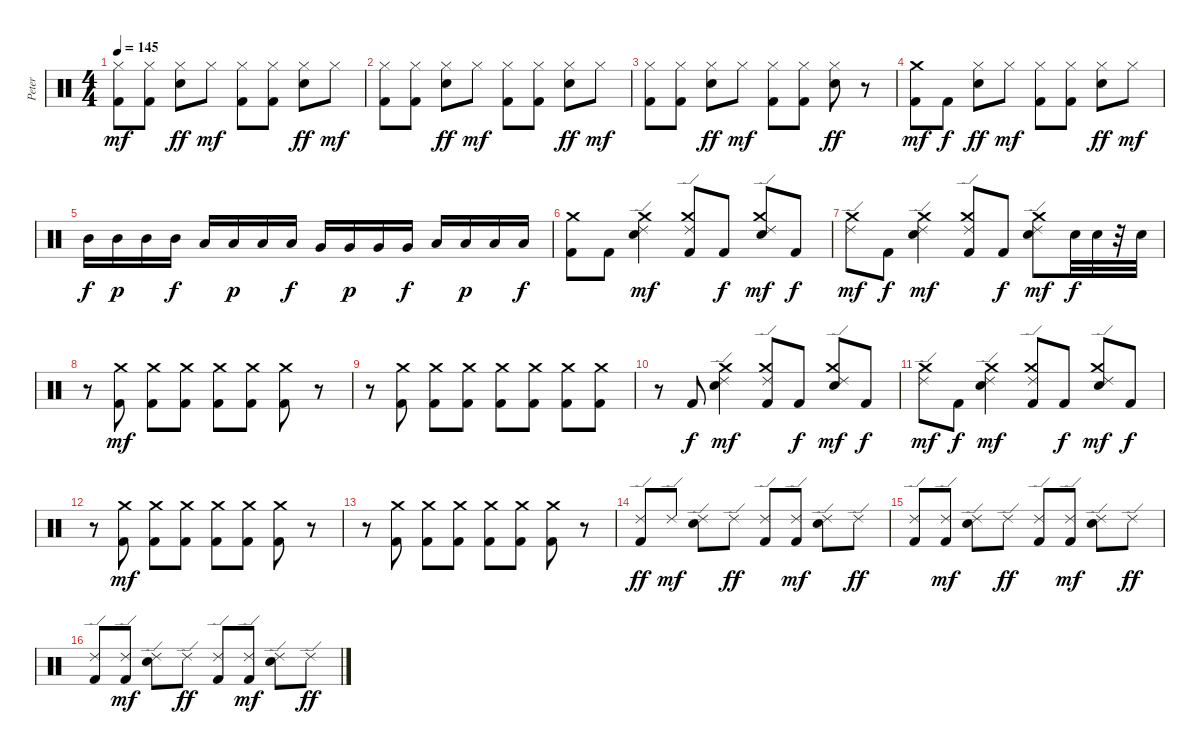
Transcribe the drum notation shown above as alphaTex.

\track ("Peter" "Peter") {instrument percussion}
\staff {score}
\articulation defaults
\ts (4 4)
\tempo 145
\clef neutral
\ks c
("Hi-Hat (closed)" "Kick (hit) 2").8{dy mf} ("Hi-Hat (closed)" "Kick (hit) 2").8 ("Hi-Hat (closed)" "Electric Snare (hit)").8{dy ff} "Hi-Hat (closed)".8{dy mf} ("Hi-Hat (closed)" "Kick (hit) 2").8 ("Hi-Hat (closed)" "Kick (hit) 2").8 ("Hi-Hat (closed)" "Electric Snare (hit)").8{dy ff} "Hi-Hat (closed)".8{dy mf} |
("Hi-Hat (closed)" "Kick (hit) 2").8 ("Hi-Hat (closed)" "Kick (hit) 2").8 ("Hi-Hat (closed)" "Electric Snare (hit)").8{dy ff} "Hi-Hat (closed)".8{dy mf} ("Hi-Hat (closed)" "Kick (hit) 2").8 ("Hi-Hat (closed)" "Kick (hit) 2").8 ("Hi-Hat (closed)" "Electric Snare (hit)").8{dy ff} "Hi-Hat (closed)".8{dy mf} |
("Hi-Hat (closed)" "Kick (hit) 2").8 ("Hi-Hat (closed)" "Kick (hit) 2").8 ("Hi-Hat (closed)" "Electric Snare (hit)").8{dy ff} "Hi-Hat (closed)".8{dy mf} ("Hi-Hat (closed)" "Kick (hit) 2").8 ("Hi-Hat (closed)" "Kick (hit) 2").8 ("Hi-Hat (closed)" "Electric Snare (hit)").8{dy ff} r.8 |
("Crash medium (hit)" "Kick (hit) 2").8{dy mf} "Kick (hit) 2".8{dy f} ("Hi-Hat (closed)" "Electric Snare (hit)").8{dy ff} "Hi-Hat (closed)".8{dy mf} ("Hi-Hat (closed)" "Kick (hit) 2").8 ("Hi-Hat (closed)" "Kick (hit) 2").8 ("Hi-Hat (closed)" "Electric Snare (hit)").8{dy ff} "Hi-Hat (closed)".8{dy mf} |
"Mid Tom (hit)".16{dy f} "Mid Tom (hit)".16{dy p} "Mid Tom (hit)".16 "Mid Tom (hit)".16{dy f} "Low Tom (hit)".16 "Low Tom (hit)".16{dy p} "Low Tom (hit)".16 "Low Tom (hit)".16{dy f} "Very Low Tom (hit)".16 "Very Low Tom (hit)".16{dy p} "Very Low Tom (hit)".16 "Very Low Tom (hit)".16{dy f} "Low Floor Tom (hit)".16 "Low Floor Tom (hit)".16{dy p} "Low Floor Tom (hit)".16 "Low Floor Tom (hit)".16{dy f} |
("Crash medium (hit)" "Kick (hit) 2").8 "Kick (hit) 2".8 ("Ride (edge) 2" "Crash medium (hit)" "Electric Snare (hit)").4{dy mf} ("Ride (edge) 2" "Crash medium (hit)" "Kick (hit) 2").8 "Kick (hit) 2".8{dy f} ("Ride (edge) 2" "Crash medium (hit)" "Electric Snare (hit)").8{dy mf} "Kick (hit) 2".8{dy f} |
("Ride (edge) 2" "Crash medium (hit)").8{dy mf} "Kick (hit) 2".8{dy f} ("Ride (edge) 2" "Crash medium (hit)" "Electric Snare (hit)").4{dy mf} ("Ride (edge) 2" "Crash medium (hit)" "Kick (hit) 2").8 "Kick (hit) 2".8{dy f} ("Ride (edge) 2" "Crash medium (hit)" "Electric Snare (hit)").8{dy mf} "Electric Snare (hit)".32{dy f} "Electric Snare (hit)".32 r.32 "Electric Snare (hit)".32 |
r.8 ("Crash medium (hit)" "Kick (hit) 2").8{dy mf} ("Crash medium (hit)" "Kick (hit) 2").8 ("Crash medium (hit)" "Kick (hit) 2").8 ("Crash medium (hit)" "Kick (hit) 2").8 ("Crash medium (hit)" "Kick (hit) 2").8 ("Crash medium (hit)" "Kick (hit) 2").8 r.8 |
r.8 ("Crash medium (hit)" "Kick (hit) 2").8 ("Crash medium (hit)" "Kick (hit) 2").8 ("Crash medium (hit)" "Kick (hit) 2").8 ("Crash medium (hit)" "Kick (hit) 2").8 ("Crash medium (hit)" "Kick (hit) 2").8 ("Crash medium (hit)" "Kick (hit) 2").8 ("Crash medium (hit)" "Kick (hit) 2").8 |
r.8 "Kick (hit) 2".8{dy f} ("Ride (edge) 2" "Crash medium (hit)" "Electric Snare (hit)").4{dy mf} ("Ride (edge) 2" "Crash medium (hit)" "Kick (hit) 2").8 "Kick (hit) 2".8{dy f} ("Ride (edge) 2" "Crash medium (hit)" "Electric Snare (hit)").8{dy mf} "Kick (hit) 2".8{dy f} |
("Ride (edge) 2" "Crash medium (hit)").8{dy mf} "Kick (hit) 2".8{dy f} ("Ride (edge) 2" "Crash medium (hit)" "Electric Snare (hit)").4{dy mf} ("Ride (edge) 2" "Crash medium (hit)" "Kick (hit) 2").8 "Kick (hit) 2".8{dy f} ("Ride (edge) 2" "Crash medium (hit)" "Electric Snare (hit)").8{dy mf} "Kick (hit) 2".8{dy f} |
r.8 ("Crash medium (hit)" "Kick (hit) 2").8{dy mf} ("Crash medium (hit)" "Kick (hit) 2").8 ("Crash medium (hit)" "Kick (hit) 2").8 ("Crash medium (hit)" "Kick (hit) 2").8 ("Crash medium (hit)" "Kick (hit) 2").8 ("Crash medium (hit)" "Kick (hit) 2").8 r.8 |
r.8 ("Crash medium (hit)" "Kick (hit) 2").8 ("Crash medium (hit)" "Kick (hit) 2").8 ("Crash medium (hit)" "Kick (hit) 2").8 ("Crash medium (hit)" "Kick (hit) 2").8 ("Crash medium (hit)" "Kick (hit) 2").8 ("Crash medium (hit)" "Kick (hit) 2").8 r.8 |
("Ride (edge) 2" "Kick (hit) 2").8{dy ff} "Ride (edge) 2".8{dy mf} ("Ride (edge) 2" "Electric Snare (hit)").8 "Ride (edge) 2".8{dy ff} ("Ride (edge) 2" "Kick (hit) 2").8 ("Ride (edge) 2" "Kick (hit) 2").8{dy mf} ("Ride (edge) 2" "Electric Snare (hit)").8 "Ride (edge) 2".8{dy ff} |
("Ride (edge) 2" "Kick (hit) 2").8 ("Ride (edge) 2" "Kick (hit) 2").8{dy mf} ("Ride (edge) 2" "Electric Snare (hit)").8 "Ride (edge) 2".8{dy ff} ("Ride (edge) 2" "Kick (hit) 2").8 ("Ride (edge) 2" "Kick (hit) 2").8{dy mf} ("Ride (edge) 2" "Electric Snare (hit)").8 "Ride (edge) 2".8{dy ff} |
("Ride (edge) 2" "Kick (hit) 2").8 ("Ride (edge) 2" "Kick (hit) 2").8{dy mf} ("Ride (edge) 2" "Electric Snare (hit)").8 "Ride (edge) 2".8{dy ff} ("Ride (edge) 2" "Kick (hit) 2").8 ("Ride (edge) 2" "Kick (hit) 2").8{dy mf} ("Ride (edge) 2" "Electric Snare (hit)").8 "Ride (edge) 2".8{dy ff}
